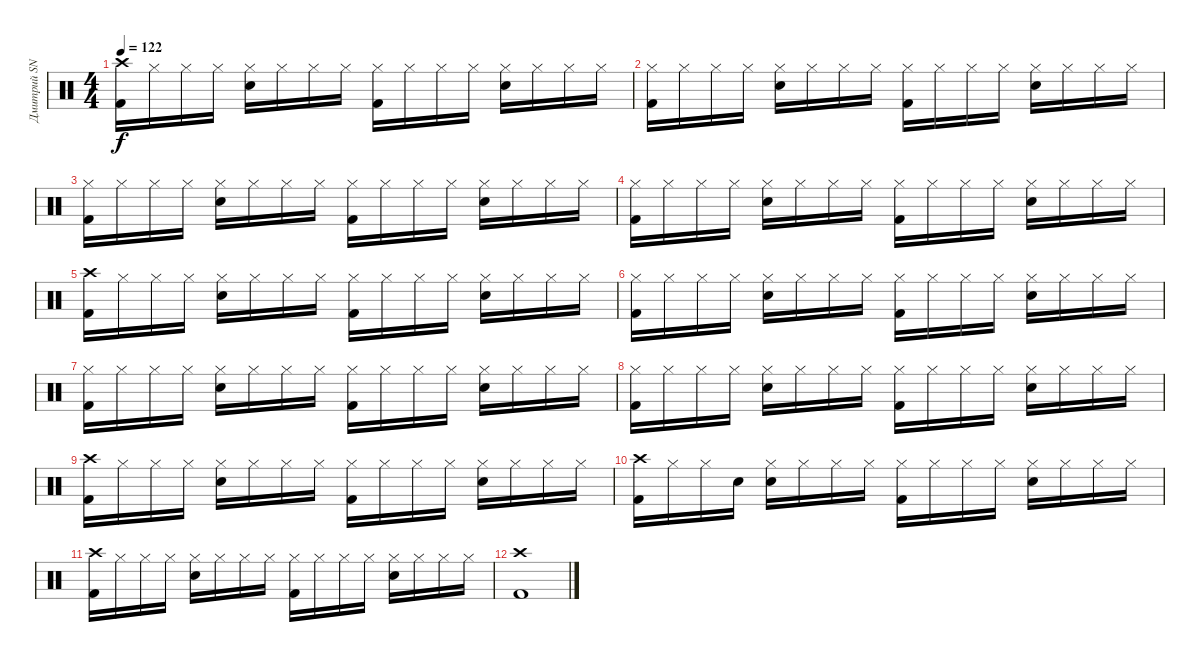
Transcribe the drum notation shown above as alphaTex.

\track ("Дмитрий SNAKE Хакимов" "Дмитрий SN") {instrument percussion}
\staff {score}
\articulation defaults
\ts (4 4)
\tempo 122
\clef neutral
\ks c
("Crash high (hit)" "Kick (hit) 2").16{dy f} "Hi-Hat (closed)".16 "Hi-Hat (closed)".16 "Hi-Hat (closed)".16 ("Hi-Hat (closed)" "Snare (hit) 2").16 "Hi-Hat (closed)".16 "Hi-Hat (closed)".16 "Hi-Hat (closed)".16 ("Hi-Hat (closed)" "Kick (hit) 2").16 "Hi-Hat (closed)".16 "Hi-Hat (closed)".16 "Hi-Hat (closed)".16 ("Hi-Hat (closed)" "Snare (hit) 2").16 "Hi-Hat (closed)".16 "Hi-Hat (closed)".16 "Hi-Hat (closed)".16 |
("Hi-Hat (closed)" "Kick (hit) 2").16 "Hi-Hat (closed)".16 "Hi-Hat (closed)".16 "Hi-Hat (closed)".16 ("Hi-Hat (closed)" "Snare (hit) 2").16 "Hi-Hat (closed)".16 "Hi-Hat (closed)".16 "Hi-Hat (closed)".16 ("Hi-Hat (closed)" "Kick (hit) 2").16 "Hi-Hat (closed)".16 "Hi-Hat (closed)".16 "Hi-Hat (closed)".16 ("Hi-Hat (closed)" "Snare (hit) 2").16 "Hi-Hat (closed)".16 "Hi-Hat (closed)".16 "Hi-Hat (closed)".16 |
("Hi-Hat (closed)" "Kick (hit) 2").16 "Hi-Hat (closed)".16 "Hi-Hat (closed)".16 "Hi-Hat (closed)".16 ("Hi-Hat (closed)" "Snare (hit) 2").16 "Hi-Hat (closed)".16 "Hi-Hat (closed)".16 "Hi-Hat (closed)".16 ("Hi-Hat (closed)" "Kick (hit) 2").16 "Hi-Hat (closed)".16 "Hi-Hat (closed)".16 "Hi-Hat (closed)".16 ("Hi-Hat (closed)" "Snare (hit) 2").16 "Hi-Hat (closed)".16 "Hi-Hat (closed)".16 "Hi-Hat (closed)".16 |
("Hi-Hat (closed)" "Kick (hit) 2").16 "Hi-Hat (closed)".16 "Hi-Hat (closed)".16 "Hi-Hat (closed)".16 ("Hi-Hat (closed)" "Snare (hit) 2").16 "Hi-Hat (closed)".16 "Hi-Hat (closed)".16 "Hi-Hat (closed)".16 ("Hi-Hat (closed)" "Kick (hit) 2").16 "Hi-Hat (closed)".16 "Hi-Hat (closed)".16 "Hi-Hat (closed)".16 ("Hi-Hat (closed)" "Snare (hit) 2").16 "Hi-Hat (closed)".16 "Hi-Hat (closed)".16 "Hi-Hat (closed)".16 |
("Crash high (hit)" "Kick (hit) 2").16 "Hi-Hat (closed)".16 "Hi-Hat (closed)".16 "Hi-Hat (closed)".16 ("Hi-Hat (closed)" "Snare (hit) 2").16 "Hi-Hat (closed)".16 "Hi-Hat (closed)".16 "Hi-Hat (closed)".16 ("Hi-Hat (closed)" "Kick (hit) 2").16 "Hi-Hat (closed)".16 "Hi-Hat (closed)".16 "Hi-Hat (closed)".16 ("Hi-Hat (closed)" "Snare (hit) 2").16 "Hi-Hat (closed)".16 "Hi-Hat (closed)".16 "Hi-Hat (closed)".16 |
("Hi-Hat (closed)" "Kick (hit) 2").16 "Hi-Hat (closed)".16 "Hi-Hat (closed)".16 "Hi-Hat (closed)".16 ("Hi-Hat (closed)" "Snare (hit) 2").16 "Hi-Hat (closed)".16 "Hi-Hat (closed)".16 "Hi-Hat (closed)".16 ("Hi-Hat (closed)" "Kick (hit) 2").16 "Hi-Hat (closed)".16 "Hi-Hat (closed)".16 "Hi-Hat (closed)".16 ("Hi-Hat (closed)" "Snare (hit) 2").16 "Hi-Hat (closed)".16 "Hi-Hat (closed)".16 "Hi-Hat (closed)".16 |
("Hi-Hat (closed)" "Kick (hit) 2").16 "Hi-Hat (closed)".16 "Hi-Hat (closed)".16 "Hi-Hat (closed)".16 ("Hi-Hat (closed)" "Snare (hit) 2").16 "Hi-Hat (closed)".16 "Hi-Hat (closed)".16 "Hi-Hat (closed)".16 ("Hi-Hat (closed)" "Kick (hit) 2").16 "Hi-Hat (closed)".16 "Hi-Hat (closed)".16 "Hi-Hat (closed)".16 ("Hi-Hat (closed)" "Snare (hit) 2").16 "Hi-Hat (closed)".16 "Hi-Hat (closed)".16 "Hi-Hat (closed)".16 |
("Hi-Hat (closed)" "Kick (hit) 2").16 "Hi-Hat (closed)".16 "Hi-Hat (closed)".16 "Hi-Hat (closed)".16 ("Hi-Hat (closed)" "Snare (hit) 2").16 "Hi-Hat (closed)".16 "Hi-Hat (closed)".16 "Hi-Hat (closed)".16 ("Hi-Hat (closed)" "Kick (hit) 2").16 "Hi-Hat (closed)".16 "Hi-Hat (closed)".16 "Hi-Hat (closed)".16 ("Hi-Hat (closed)" "Snare (hit) 2").16 "Hi-Hat (closed)".16 "Hi-Hat (closed)".16 "Hi-Hat (closed)".16 |
("Crash high (hit)" "Kick (hit) 2").16 "Hi-Hat (closed)".16 "Hi-Hat (closed)".16 "Hi-Hat (closed)".16 ("Hi-Hat (closed)" "Snare (hit) 2").16 "Hi-Hat (closed)".16 "Hi-Hat (closed)".16 "Hi-Hat (closed)".16 ("Hi-Hat (closed)" "Kick (hit) 2").16 "Hi-Hat (closed)".16 "Hi-Hat (closed)".16 "Hi-Hat (closed)".16 ("Hi-Hat (closed)" "Snare (hit) 2").16 "Hi-Hat (closed)".16 "Hi-Hat (closed)".16 "Hi-Hat (closed)".16 |
("Crash high (hit)" "Kick (hit) 2").16 "Hi-Hat (closed)".16 "Hi-Hat (closed)".16 "Snare (hit)".16 ("Hi-Hat (closed)" "Snare (hit) 2").16 "Hi-Hat (closed)".16 "Hi-Hat (closed)".16 "Hi-Hat (closed)".16 ("Hi-Hat (closed)" "Kick (hit) 2").16 "Hi-Hat (closed)".16 "Hi-Hat (closed)".16 "Hi-Hat (closed)".16 ("Hi-Hat (closed)" "Snare (hit) 2").16 "Hi-Hat (closed)".16 "Hi-Hat (closed)".16 "Hi-Hat (closed)".16 |
("Crash high (hit)" "Kick (hit) 2").16 "Hi-Hat (closed)".16 "Hi-Hat (closed)".16 "Hi-Hat (closed)".16 ("Hi-Hat (closed)" "Snare (hit) 2").16 "Hi-Hat (closed)".16 "Hi-Hat (closed)".16 "Hi-Hat (closed)".16 ("Hi-Hat (closed)" "Kick (hit) 2").16 "Hi-Hat (closed)".16 "Hi-Hat (closed)".16 "Hi-Hat (closed)".16 ("Hi-Hat (closed)" "Snare (hit) 2").16 "Hi-Hat (closed)".16 "Hi-Hat (closed)".16 "Hi-Hat (closed)".16 |
("Crash high (hit)" "Kick (hit) 2").1
